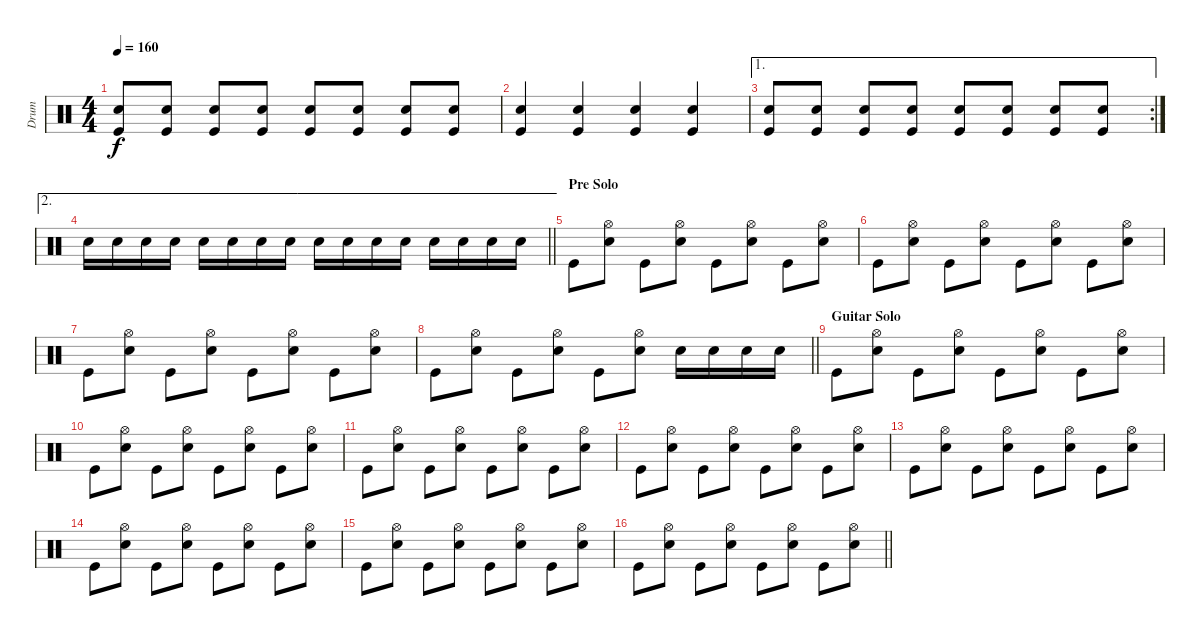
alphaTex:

\track ("Drum" "Drum") {instrument percussion}
\staff {score}
\articulation defaults
\ts (4 4)
\tempo 160
\clef neutral
\ks c
("Electric Snare (hit)" "Kick (hit)").8{dy f} ("Electric Snare (hit)" "Kick (hit)").8 ("Electric Snare (hit)" "Kick (hit)").8 ("Electric Snare (hit)" "Kick (hit)").8 ("Electric Snare (hit)" "Kick (hit)").8 ("Electric Snare (hit)" "Kick (hit)").8 ("Electric Snare (hit)" "Kick (hit)").8 ("Electric Snare (hit)" "Kick (hit)").8 |
("Electric Snare (hit)" "Kick (hit)").4 ("Electric Snare (hit)" "Kick (hit)").4 ("Electric Snare (hit)" "Kick (hit)").4 ("Electric Snare (hit)" "Kick (hit)").4 |
\ae 1
\rc 2
("Electric Snare (hit)" "Kick (hit)").8 ("Electric Snare (hit)" "Kick (hit)").8 ("Electric Snare (hit)" "Kick (hit)").8 ("Electric Snare (hit)" "Kick (hit)").8 ("Electric Snare (hit)" "Kick (hit)").8 ("Electric Snare (hit)" "Kick (hit)").8 ("Electric Snare (hit)" "Kick (hit)").8 ("Electric Snare (hit)" "Kick (hit)").8 |
\ae 2
\barLineRight lightlight "Electric Snare (hit)".16 "Electric Snare (hit)".16 "Electric Snare (hit)".16 "Electric Snare (hit)".16 "Electric Snare (hit)".16 "Electric Snare (hit)".16 "Electric Snare (hit)".16 "Electric Snare (hit)".16 "Electric Snare (hit)".16 "Electric Snare (hit)".16 "Electric Snare (hit)".16 "Electric Snare (hit)".16 "Electric Snare (hit)".16 "Electric Snare (hit)".16 "Electric Snare (hit)".16 "Electric Snare (hit)".16
|
\section ("" "Pre Solo")
"Kick (hit)".8 ("Hi-Hat (open)" "Electric Snare (hit)").8 "Kick (hit)".8 ("Hi-Hat (open)" "Electric Snare (hit)").8 "Kick (hit)".8 ("Hi-Hat (open)" "Electric Snare (hit)").8 "Kick (hit)".8 ("Hi-Hat (open)" "Electric Snare (hit)").8 |
"Kick (hit)".8 ("Hi-Hat (open)" "Electric Snare (hit)").8 "Kick (hit)".8 ("Hi-Hat (open)" "Electric Snare (hit)").8 "Kick (hit)".8 ("Hi-Hat (open)" "Electric Snare (hit)").8 "Kick (hit)".8 ("Hi-Hat (open)" "Electric Snare (hit)").8 |
"Kick (hit)".8 ("Hi-Hat (open)" "Electric Snare (hit)").8 "Kick (hit)".8 ("Hi-Hat (open)" "Electric Snare (hit)").8 "Kick (hit)".8 ("Hi-Hat (open)" "Electric Snare (hit)").8 "Kick (hit)".8 ("Hi-Hat (open)" "Electric Snare (hit)").8 |
\barLineRight lightlight "Kick (hit)".8
("Hi-Hat (open)" "Electric Snare (hit)").8 "Kick (hit)".8 ("Hi-Hat (open)" "Electric Snare (hit)").8 "Kick (hit)".8 ("Hi-Hat (open)" "Electric Snare (hit)").8 "Electric Snare (hit)".16 "Electric Snare (hit)".16 "Electric Snare (hit)".16 "Electric Snare (hit)".16 |
\section ("" "Guitar Solo")
"Kick (hit)".8 ("Hi-Hat (open)" "Electric Snare (hit)").8 "Kick (hit)".8 ("Hi-Hat (open)" "Electric Snare (hit)").8 "Kick (hit)".8 ("Hi-Hat (open)" "Electric Snare (hit)").8 "Kick (hit)".8 ("Hi-Hat (open)" "Electric Snare (hit)").8 |
"Kick (hit)".8 ("Hi-Hat (open)" "Electric Snare (hit)").8 "Kick (hit)".8 ("Hi-Hat (open)" "Electric Snare (hit)").8 "Kick (hit)".8 ("Hi-Hat (open)" "Electric Snare (hit)").8 "Kick (hit)".8 ("Hi-Hat (open)" "Electric Snare (hit)").8 |
"Kick (hit)".8 ("Hi-Hat (open)" "Electric Snare (hit)").8 "Kick (hit)".8 ("Hi-Hat (open)" "Electric Snare (hit)").8 "Kick (hit)".8 ("Hi-Hat (open)" "Electric Snare (hit)").8 "Kick (hit)".8 ("Hi-Hat (open)" "Electric Snare (hit)").8 |
"Kick (hit)".8 ("Hi-Hat (open)" "Electric Snare (hit)").8 "Kick (hit)".8 ("Hi-Hat (open)" "Electric Snare (hit)").8 "Kick (hit)".8 ("Hi-Hat (open)" "Electric Snare (hit)").8 "Kick (hit)".8 ("Hi-Hat (open)" "Electric Snare (hit)").8 |
"Kick (hit)".8 ("Hi-Hat (open)" "Electric Snare (hit)").8 "Kick (hit)".8 ("Hi-Hat (open)" "Electric Snare (hit)").8 "Kick (hit)".8 ("Hi-Hat (open)" "Electric Snare (hit)").8 "Kick (hit)".8 ("Hi-Hat (open)" "Electric Snare (hit)").8 |
"Kick (hit)".8 ("Hi-Hat (open)" "Electric Snare (hit)").8 "Kick (hit)".8 ("Hi-Hat (open)" "Electric Snare (hit)").8 "Kick (hit)".8 ("Hi-Hat (open)" "Electric Snare (hit)").8 "Kick (hit)".8 ("Hi-Hat (open)" "Electric Snare (hit)").8 |
"Kick (hit)".8 ("Hi-Hat (open)" "Electric Snare (hit)").8 "Kick (hit)".8 ("Hi-Hat (open)" "Electric Snare (hit)").8 "Kick (hit)".8 ("Hi-Hat (open)" "Electric Snare (hit)").8 "Kick (hit)".8 ("Hi-Hat (open)" "Electric Snare (hit)").8 |
\barLineRight lightlight "Kick (hit)".8
("Hi-Hat (open)" "Electric Snare (hit)").8 "Kick (hit)".8 ("Hi-Hat (open)" "Electric Snare (hit)").8 "Kick (hit)".8 ("Hi-Hat (open)" "Electric Snare (hit)").8 "Kick (hit)".8 ("Hi-Hat (open)" "Electric Snare (hit)").8
